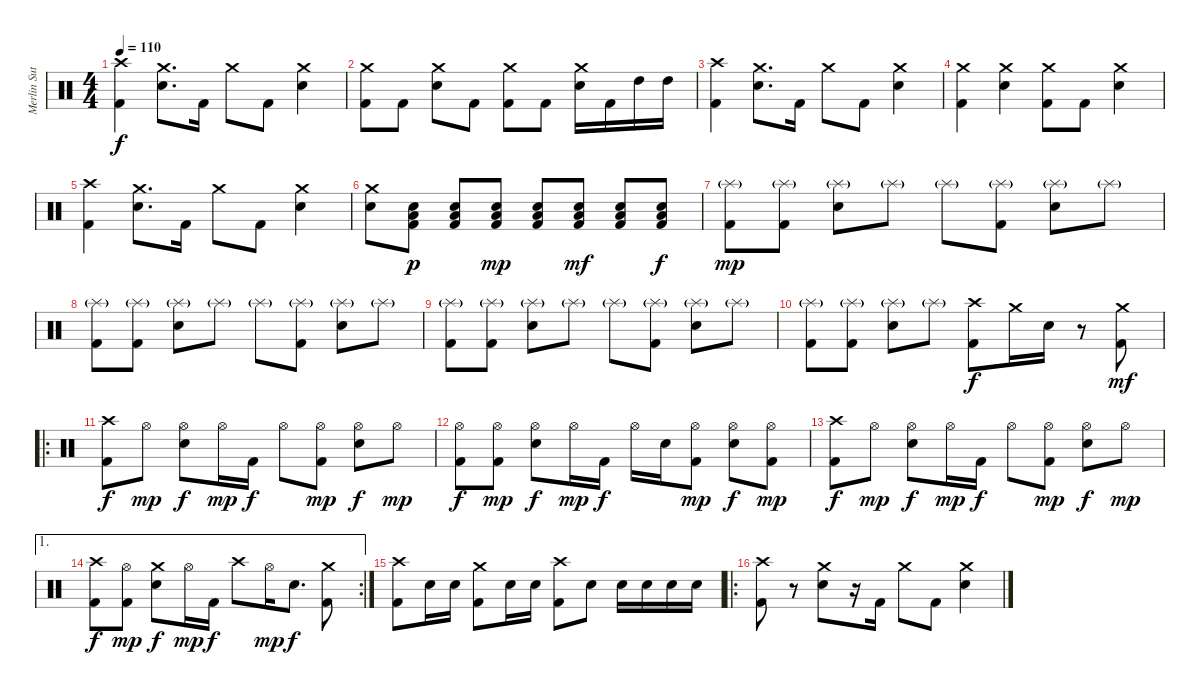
\track ("Merlin Sutter" "Merlin Sut") {instrument percussion}
\staff {score}
\articulation defaults
\ts (4 4)
\tempo 110
\clef neutral
\ks c
("Crash high (hit)" "Kick (hit) 2").4{dy f} ("Crash medium (hit)" "Snare (hit) 2").8{d} "Kick (hit) 2".16 "Crash medium (hit)".8 "Kick (hit) 2".8 ("Crash medium (hit)" "Snare (hit) 2").4 |
("Crash medium (hit)" "Kick (hit) 2").8 "Kick (hit) 2".8 ("Crash medium (hit)" "Snare (hit) 2").8 "Kick (hit) 2".8 ("Crash medium (hit)" "Kick (hit) 2").8 "Kick (hit) 2".8 ("Crash medium (hit)" "Snare (hit) 2").16 "Kick (hit) 2".16 "High Tom (hit)".16 "High Tom (hit)".16 |
("Crash high (hit)" "Kick (hit) 2").4 ("Crash medium (hit)" "Snare (hit) 2").8{d} "Kick (hit) 2".16 "Crash medium (hit)".8 "Kick (hit) 2".8 ("Crash medium (hit)" "Snare (hit) 2").4 |
("Crash medium (hit)" "Kick (hit) 2").4 ("Crash medium (hit)" "Snare (hit) 2").4 ("Crash medium (hit)" "Kick (hit) 2").8 "Kick (hit) 2".8 ("Crash medium (hit)" "Snare (hit) 2").4 |
("Crash high (hit)" "Kick (hit) 2").4 ("Crash medium (hit)" "Snare (hit) 2").8{d} "Kick (hit) 2".16 "Crash medium (hit)".8 "Kick (hit) 2".8 ("Crash medium (hit)" "Snare (hit) 2").4 |
("Crash medium (hit)" "Snare (hit) 2").8 ("Low Tom (hit)" "Snare (hit) 2" "Kick (hit) 2").8{dy p} ("Low Tom (hit)" "Snare (hit) 2" "Kick (hit) 2").8 ("Low Tom (hit)" "Snare (hit) 2" "Kick (hit) 2").8{dy mp} ("Low Tom (hit)" "Snare (hit) 2" "Kick (hit) 2").8 ("Low Tom (hit)" "Snare (hit) 2" "Kick (hit) 2").8{dy mf} ("Low Tom (hit)" "Snare (hit) 2" "Kick (hit) 2").8 ("Low Tom (hit)" "Snare (hit) 2" "Kick (hit) 2").8{dy f} |
("Splash (hit)"{g} "Kick (hit) 2").8{dy mp} ("Splash (hit)"{g} "Kick (hit) 2").8 ("Splash (hit)"{g} "Snare (hit) 2").8 "Splash (hit)"{g}.8 "Splash (hit)"{g}.8 ("Splash (hit)"{g} "Kick (hit) 2").8 ("Splash (hit)"{g} "Snare (hit) 2").8 "Splash (hit)"{g}.8 |
("Splash (hit)"{g} "Kick (hit) 2").8 ("Splash (hit)"{g} "Kick (hit) 2").8 ("Splash (hit)"{g} "Snare (hit) 2").8 "Splash (hit)"{g}.8 "Splash (hit)"{g}.8 ("Splash (hit)"{g} "Kick (hit) 2").8 ("Splash (hit)"{g} "Snare (hit) 2").8 "Splash (hit)"{g}.8 |
("Splash (hit)"{g} "Kick (hit) 2").8 ("Splash (hit)"{g} "Kick (hit) 2").8 ("Splash (hit)"{g} "Snare (hit) 2").8 "Splash (hit)"{g}.8 "Splash (hit)"{g}.8 ("Splash (hit)"{g} "Kick (hit) 2").8 ("Splash (hit)"{g} "Snare (hit) 2").8 "Splash (hit)"{g}.8 |
("Splash (hit)"{g} "Kick (hit) 2").8 ("Splash (hit)"{g} "Kick (hit) 2").8 ("Splash (hit)"{g} "Snare (hit) 2").8 "Splash (hit)"{g}.8 ("Crash high (hit)" "Kick (hit) 2").8{dy f} "Crash medium (hit)".16 "Snare (hit) 2".16 r.8 ("Crash medium (hit)" "Kick (hit) 2").8{dy mf} |
\ro
("Crash high (hit)" "Kick (hit) 2").8{dy f} "Hi-Hat (open)".8{dy mp} ("Hi-Hat (open)" "Snare (hit) 2").8{dy f} "Hi-Hat (open)".16{dy mp} "Kick (hit) 2".16{dy f} "Hi-Hat (open)".8 ("Hi-Hat (open)" "Kick (hit) 2").8{dy mp} ("Hi-Hat (open)" "Snare (hit) 2").8{dy f} "Hi-Hat (open)".8{dy mp} |
("Hi-Hat (open)" "Kick (hit) 2").8{dy f} ("Hi-Hat (open)" "Kick (hit) 2").8{dy mp} ("Hi-Hat (open)" "Snare (hit) 2").8{dy f} "Hi-Hat (open)".16{dy mp} "Kick (hit) 2".16{dy f} "Hi-Hat (open)".16 "Snare (hit) 2".16 ("Hi-Hat (open)" "Kick (hit) 2").8{dy mp} ("Hi-Hat (open)" "Snare (hit) 2").8{dy f} ("Hi-Hat (open)" "Kick (hit) 2").8{dy mp} |
("Crash high (hit)" "Kick (hit) 2").8{dy f} "Hi-Hat (open)".8{dy mp} ("Hi-Hat (open)" "Snare (hit) 2").8{dy f} "Hi-Hat (open)".16{dy mp} "Kick (hit) 2".16{dy f} "Hi-Hat (open)".8 ("Hi-Hat (open)" "Kick (hit) 2").8{dy mp} ("Hi-Hat (open)" "Snare (hit) 2").8{dy f} "Hi-Hat (open)".8{dy mp} |
\ae 1
\rc 2
("Crash high (hit)" "Kick (hit) 2").8{dy f} ("Hi-Hat (open)" "Kick (hit) 2").8{dy mp} ("Crash medium (hit)" "Snare (hit) 2").8{dy f} "Hi-Hat (open)".16{dy mp} "Kick (hit) 2".16{dy f} "Crash high (hit)".8 "Hi-Hat (open)".16{dy mp} "Snare (hit) 2".8{d dy f} ("Crash medium (hit)" "Kick (hit) 2").8 |
("Crash high (hit)" "Kick (hit) 2").8 "Snare (hit) 2".16 "Snare (hit) 2".16 ("Crash medium (hit)" "Kick (hit) 2").8 "Snare (hit) 2".16 "Snare (hit) 2".16 ("Crash high (hit)" "Kick (hit) 2").8 "Snare (hit) 2".8 "Snare (hit) 2".16 "Snare (hit) 2".16 "Snare (hit) 2".16 "Snare (hit) 2".16 |
\ro
("Crash high (hit)" "Kick (hit) 2").8 r.8 ("Crash medium (hit)" "Snare (hit) 2").8 r.16 "Kick (hit) 2".16 "Crash medium (hit)".8 "Kick (hit) 2".8 ("Crash medium (hit)" "Snare (hit) 2").4
